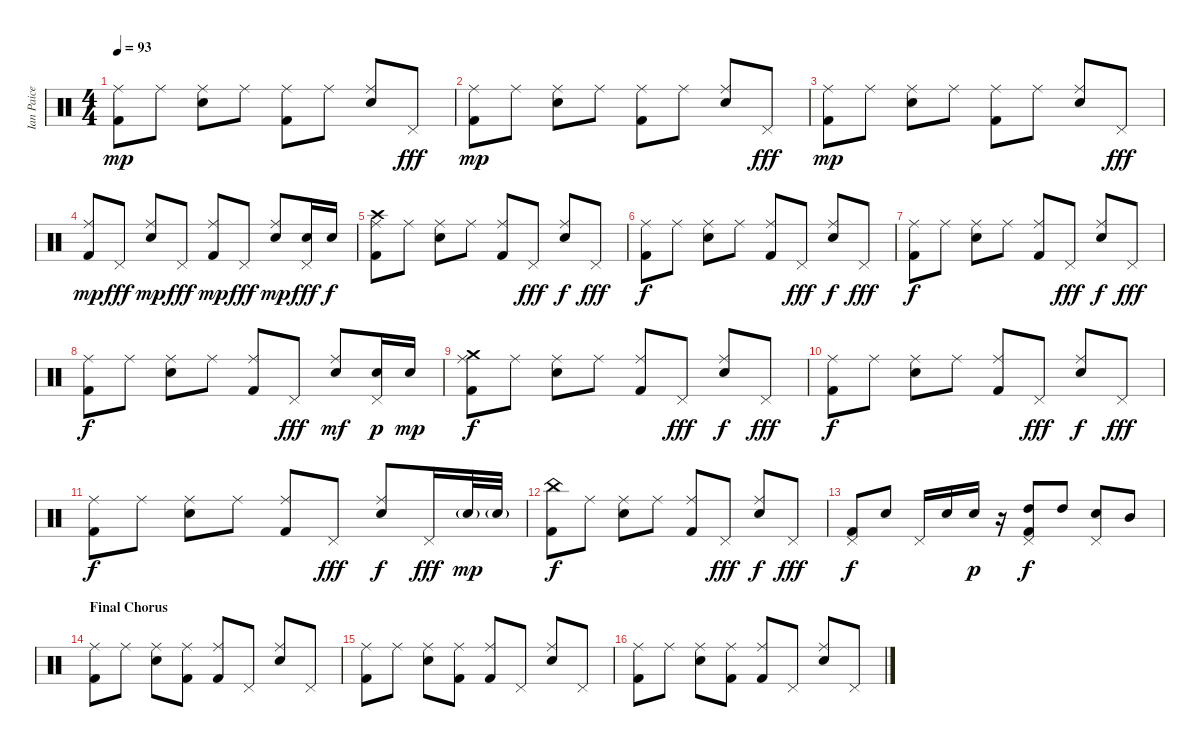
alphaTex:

\track ("Ian Paice (drums)" "Ian Paice ") {instrument percussion}
\staff {score}
\articulation defaults
\ts (4 4)
\tempo 93
\clef neutral
\ks c
("Ride (middle)" "Kick (hit) 2").8{dy mp} "Ride (middle)".8 ("Ride (middle)" "Electric Snare (hit)").8 "Ride (middle)".8 ("Ride (middle)" "Kick (hit) 2").8 "Ride (middle)".8 ("Ride (middle)" "Electric Snare (hit)").8 "Pedal Hi-Hat (hit)".8{dy fff} |
("Ride (middle)" "Kick (hit) 2").8{dy mp} "Ride (middle)".8 ("Ride (middle)" "Electric Snare (hit)").8 "Ride (middle)".8 ("Ride (middle)" "Kick (hit) 2").8 "Ride (middle)".8 ("Ride (middle)" "Electric Snare (hit)").8 "Pedal Hi-Hat (hit)".8{dy fff} |
("Ride (middle)" "Kick (hit) 2").8{dy mp} "Ride (middle)".8 ("Ride (middle)" "Electric Snare (hit)").8 "Ride (middle)".8 ("Ride (middle)" "Kick (hit) 2").8 "Ride (middle)".8 ("Ride (middle)" "Electric Snare (hit)").8 "Pedal Hi-Hat (hit)".8{dy fff} |
("Ride (middle)" "Kick (hit) 2").8{dy mp} "Pedal Hi-Hat (hit)".8{dy fff} ("Ride (middle)" "Electric Snare (hit)").8{dy mp} "Pedal Hi-Hat (hit)".8{dy fff} ("Ride (middle)" "Kick (hit) 2").8{dy mp} "Pedal Hi-Hat (hit)".8{dy fff} ("Ride (middle)" "Electric Snare (hit)").8{dy mp} ("Pedal Hi-Hat (hit)" "Electric Snare (hit)").16{dy fff} "Electric Snare (hit)".16{dy f} |
("Crash high (hit)" "Ride (middle)" "Kick (hit) 2").8 "Ride (middle)".8 ("Ride (middle)" "Electric Snare (hit)").8 "Ride (middle)".8 ("Ride (middle)" "Kick (hit) 2").8 "Pedal Hi-Hat (hit)".8{dy fff} ("Ride (middle)" "Electric Snare (hit)").8{dy f} "Pedal Hi-Hat (hit)".8{dy fff} |
("Ride (middle)" "Kick (hit) 2").8{dy f} "Ride (middle)".8 ("Ride (middle)" "Electric Snare (hit)").8 "Ride (middle)".8 ("Ride (middle)" "Kick (hit) 2").8 "Pedal Hi-Hat (hit)".8{dy fff} ("Ride (middle)" "Electric Snare (hit)").8{dy f} "Pedal Hi-Hat (hit)".8{dy fff} |
("Ride (middle)" "Kick (hit) 2").8{dy f} "Ride (middle)".8 ("Ride (middle)" "Electric Snare (hit)").8 "Ride (middle)".8 ("Ride (middle)" "Kick (hit) 2").8 "Pedal Hi-Hat (hit)".8{dy fff} ("Ride (middle)" "Electric Snare (hit)").8{dy f} "Pedal Hi-Hat (hit)".8{dy fff} |
("Ride (middle)" "Kick (hit) 2").8{dy f} "Ride (middle)".8 ("Ride (middle)" "Electric Snare (hit)").8 "Ride (middle)".8 ("Ride (middle)" "Kick (hit) 2").8 "Pedal Hi-Hat (hit)".8{dy fff} ("Ride (middle)" "Electric Snare (hit)").8{dy mf} ("Pedal Hi-Hat (hit)" "Electric Snare (hit)").16{dy p} "Electric Snare (hit)".16{dy mp} |
("Crash medium (hit)" "Ride (middle)" "Kick (hit) 2").8{dy f} "Ride (middle)".8 ("Ride (middle)" "Electric Snare (hit)").8 "Ride (middle)".8 ("Ride (middle)" "Kick (hit) 2").8 "Pedal Hi-Hat (hit)".8{dy fff} ("Ride (middle)" "Electric Snare (hit)").8{dy f} "Pedal Hi-Hat (hit)".8{dy fff} |
("Ride (middle)" "Kick (hit) 2").8{dy f} "Ride (middle)".8 ("Ride (middle)" "Electric Snare (hit)").8 "Ride (middle)".8 ("Ride (middle)" "Kick (hit) 2").8 "Pedal Hi-Hat (hit)".8{dy fff} ("Ride (middle)" "Electric Snare (hit)").8{dy f} "Pedal Hi-Hat (hit)".8{dy fff} |
("Ride (middle)" "Kick (hit) 2").8{dy f} "Ride (middle)".8 ("Ride (middle)" "Electric Snare (hit)").8 "Ride (middle)".8 ("Ride (middle)" "Kick (hit) 2").8 "Pedal Hi-Hat (hit)".8{dy fff} ("Ride (middle)" "Electric Snare (hit)").8{dy f} "Pedal Hi-Hat (hit)".16{dy fff} "Electric Snare (hit)"{g}.32{dy mp} "Electric Snare (hit)"{g}.32 |
("China (hit)" "Kick (hit) 2").8{dy f} "Ride (middle)".8 ("Ride (middle)" "Electric Snare (hit)").8 "Ride (middle)".8 ("Ride (middle)" "Kick (hit) 2").8 "Pedal Hi-Hat (hit)".8{dy fff} ("Ride (middle)" "Electric Snare (hit)").8{dy f} "Pedal Hi-Hat (hit)".8{dy fff} |
("Pedal Hi-Hat (hit)" "Kick (hit) 2").8{dy f} "Electric Snare (hit)".8 "Pedal Hi-Hat (hit)".16 "Electric Snare (hit)".16 "Electric Snare (hit)".16{dy p} r.16 ("Pedal Hi-Hat (hit)" "High Tom (hit)" "Kick (hit) 2").8{dy f} "High Tom (hit)".8 ("Pedal Hi-Hat (hit)" "Electric Snare (hit)").8 "Mid Tom (hit)".8 |
\section ("" "Final Chorus")
("Ride (middle)" "Kick (hit) 2").8 "Ride (middle)".8 ("Ride (middle)" "Electric Snare (hit)").8 ("Ride (middle)" "Kick (hit) 2").8 ("Ride (middle)" "Kick (hit) 2").8 "Pedal Hi-Hat (hit)".8 ("Ride (middle)" "Electric Snare (hit)").8 "Pedal Hi-Hat (hit)".8 |
("Ride (middle)" "Kick (hit) 2").8 "Ride (middle)".8 ("Ride (middle)" "Electric Snare (hit)").8 ("Ride (middle)" "Kick (hit) 2").8 ("Ride (middle)" "Kick (hit) 2").8 "Pedal Hi-Hat (hit)".8 ("Ride (middle)" "Electric Snare (hit)").8 "Pedal Hi-Hat (hit)".8 |
("Ride (middle)" "Kick (hit) 2").8 "Ride (middle)".8 ("Ride (middle)" "Electric Snare (hit)").8 ("Ride (middle)" "Kick (hit) 2").8 ("Ride (middle)" "Kick (hit) 2").8 "Pedal Hi-Hat (hit)".8 ("Ride (middle)" "Electric Snare (hit)").8 "Pedal Hi-Hat (hit)".8
